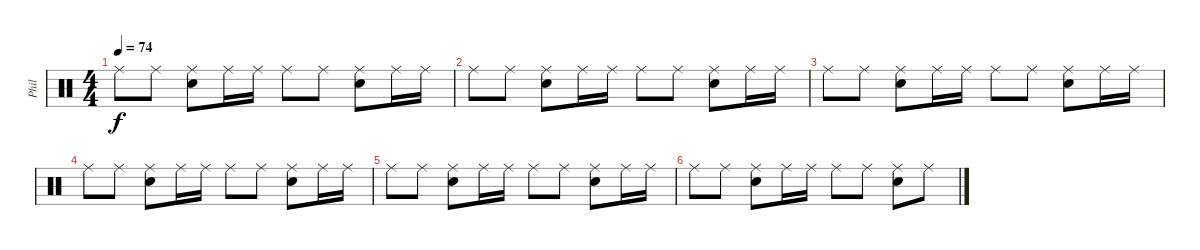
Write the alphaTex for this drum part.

\track ("Phil" "Phil") {instrument percussion}
\staff {score}
\articulation defaults
\ts (4 4)
\tempo 74
\clef neutral
\ks c "Ride (middle)".8{dy f} "Ride (middle)".8
("Ride (middle)" "Snare (hit) 2").8 "Ride (middle)".16 "Ride (middle)".16 "Ride (middle)".8 "Ride (middle)".8 ("Ride (middle)" "Snare (hit) 2").8 "Ride (middle)".16 "Ride (middle)".16 |
"Ride (middle)".8 "Ride (middle)".8 ("Ride (middle)" "Snare (hit) 2").8 "Ride (middle)".16 "Ride (middle)".16 "Ride (middle)".8 "Ride (middle)".8 ("Ride (middle)" "Snare (hit) 2").8 "Ride (middle)".16 "Ride (middle)".16 |
"Ride (middle)".8 "Ride (middle)".8 ("Ride (middle)" "Snare (hit) 2").8 "Ride (middle)".16 "Ride (middle)".16 "Ride (middle)".8 "Ride (middle)".8 ("Ride (middle)" "Snare (hit) 2").8 "Ride (middle)".16 "Ride (middle)".16 |
"Ride (middle)".8 "Ride (middle)".8 ("Ride (middle)" "Snare (hit) 2").8 "Ride (middle)".16 "Ride (middle)".16 "Ride (middle)".8 "Ride (middle)".8 ("Ride (middle)" "Snare (hit) 2").8 "Ride (middle)".16 "Ride (middle)".16 |
"Ride (middle)".8 "Ride (middle)".8 ("Ride (middle)" "Snare (hit) 2").8 "Ride (middle)".16 "Ride (middle)".16 "Ride (middle)".8 "Ride (middle)".8 ("Ride (middle)" "Snare (hit) 2").8 "Ride (middle)".16 "Ride (middle)".16 |
"Ride (middle)".8 "Ride (middle)".8 ("Ride (middle)" "Snare (hit) 2").8 "Ride (middle)".16 "Ride (middle)".16 "Ride (middle)".8 "Ride (middle)".8 ("Ride (middle)" "Snare (hit) 2").8 "Ride (middle)".8
